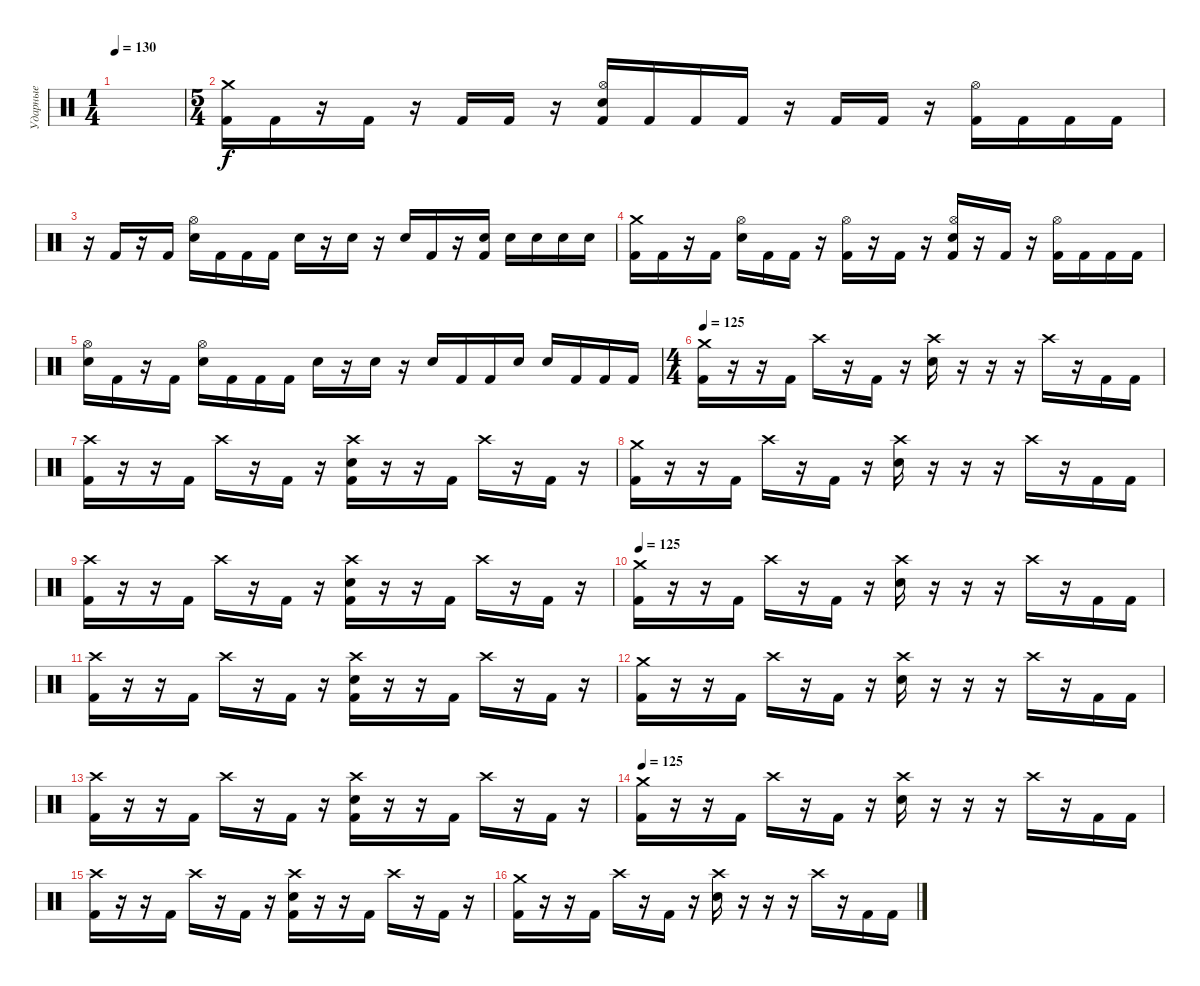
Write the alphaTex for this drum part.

\track ("Ударные" "Ударные") {instrument percussion}
\staff {score}
\articulation defaults
\ts (1 4)
\tempo 130
\clef neutral
\ks c
|
\ts (5 4)
("Crash medium (hit)" "Kick (hit) 2").16 "Kick (hit) 2".16 r.16 "Kick (hit) 2".16 r.16 "Kick (hit) 2".16 "Kick (hit) 2".16 r.16 ("Hi-Hat (open)" "Electric Snare (hit)" "Kick (hit) 2").16 "Kick (hit) 2".16 "Kick (hit) 2".16 "Kick (hit) 2".16 r.16 "Kick (hit) 2".16 "Kick (hit) 2".16 r.16 ("Hi-Hat (open)" "Kick (hit) 2").16 "Kick (hit) 2".16 "Kick (hit) 2".16 "Kick (hit) 2".16 |
r.16 "Kick (hit) 2".16 r.16 "Kick (hit) 2".16 ("Hi-Hat (open)" "Electric Snare (hit)").16 "Kick (hit) 2".16 "Kick (hit) 2".16 "Kick (hit) 2".16 "Electric Snare (hit)".16 r.16 "Electric Snare (hit)".16 r.16 "Electric Snare (hit)".16 "Kick (hit) 2".16 r.16 ("Electric Snare (hit)" "Kick (hit) 2").16 "Electric Snare (hit)".16 "Electric Snare (hit)".16 "Electric Snare (hit)".16 "Electric Snare (hit)".16 |
("Crash medium (hit)" "Kick (hit) 2").16 "Kick (hit) 2".16 r.16 "Kick (hit) 2".16 ("Hi-Hat (open)" "Electric Snare (hit)").16 "Kick (hit) 2".16 "Kick (hit) 2".16 r.16 ("Hi-Hat (open)" "Kick (hit) 2").16 r.16 "Kick (hit) 2".16 r.16 ("Hi-Hat (open)" "Electric Snare (hit)" "Kick (hit) 2").16 r.16 "Kick (hit) 2".16 r.16 ("Hi-Hat (open)" "Kick (hit) 2").16 "Kick (hit) 2".16 "Kick (hit) 2".16 "Kick (hit) 2".16 |
("Hi-Hat (open)" "Electric Snare (hit)").16 "Kick (hit) 2".16 r.16 "Kick (hit) 2".16 ("Hi-Hat (open)" "Electric Snare (hit)").16 "Kick (hit) 2".16 "Kick (hit) 2".16 "Kick (hit) 2".16 "Electric Snare (hit)".16 r.16 "Electric Snare (hit)".16 r.16 "Electric Snare (hit)".16 "Kick (hit) 2".16 "Kick (hit) 2".16 "Electric Snare (hit)".16 "Electric Snare (hit)".16 "Kick (hit) 2".16 "Kick (hit) 2".16 "Kick (hit) 2".16 |
\ts (4 4)
\tempo 125
("Crash medium (hit)" "Kick (hit) 2").16 r.16 r.16 "Kick (hit) 2".16 "Crash high (hit)".16 r.16 "Kick (hit) 2".16 r.16 ("Crash high (hit)" "Electric Snare (hit)").16 r.16 r.16 r.16 "Crash high (hit)".16 r.16 "Kick (hit) 2".16 "Kick (hit) 2".16 |
("Crash high (hit)" "Kick (hit) 2").16 r.16 r.16 "Kick (hit) 2".16 "Crash high (hit)".16 r.16 "Kick (hit) 2".16 r.16 ("Crash high (hit)" "Electric Snare (hit)" "Kick (hit) 2").16 r.16 r.16 "Kick (hit) 2".16 "Crash high (hit)".16 r.16 "Kick (hit) 2".16 r.16 |
("Crash medium (hit)" "Kick (hit) 2").16 r.16 r.16 "Kick (hit) 2".16 "Crash high (hit)".16 r.16 "Kick (hit) 2".16 r.16 ("Crash high (hit)" "Electric Snare (hit)").16 r.16 r.16 r.16 "Crash high (hit)".16 r.16 "Kick (hit) 2".16 "Kick (hit) 2".16 |
("Crash high (hit)" "Kick (hit) 2").16 r.16 r.16 "Kick (hit) 2".16 "Crash high (hit)".16 r.16 "Kick (hit) 2".16 r.16 ("Crash high (hit)" "Electric Snare (hit)" "Kick (hit) 2").16 r.16 r.16 "Kick (hit) 2".16 "Crash high (hit)".16 r.16 "Kick (hit) 2".16 r.16 |
\tempo 125
("Crash medium (hit)" "Kick (hit) 2").16 r.16 r.16 "Kick (hit) 2".16 "Crash high (hit)".16 r.16 "Kick (hit) 2".16 r.16 ("Crash high (hit)" "Electric Snare (hit)").16 r.16 r.16 r.16 "Crash high (hit)".16 r.16 "Kick (hit) 2".16 "Kick (hit) 2".16 |
("Crash high (hit)" "Kick (hit) 2").16 r.16 r.16 "Kick (hit) 2".16 "Crash high (hit)".16 r.16 "Kick (hit) 2".16 r.16 ("Crash high (hit)" "Electric Snare (hit)" "Kick (hit) 2").16 r.16 r.16 "Kick (hit) 2".16 "Crash high (hit)".16 r.16 "Kick (hit) 2".16 r.16 |
("Crash medium (hit)" "Kick (hit) 2").16 r.16 r.16 "Kick (hit) 2".16 "Crash high (hit)".16 r.16 "Kick (hit) 2".16 r.16 ("Crash high (hit)" "Electric Snare (hit)").16 r.16 r.16 r.16 "Crash high (hit)".16 r.16 "Kick (hit) 2".16 "Kick (hit) 2".16 |
("Crash high (hit)" "Kick (hit) 2").16 r.16 r.16 "Kick (hit) 2".16 "Crash high (hit)".16 r.16 "Kick (hit) 2".16 r.16 ("Crash high (hit)" "Electric Snare (hit)" "Kick (hit) 2").16 r.16 r.16 "Kick (hit) 2".16 "Crash high (hit)".16 r.16 "Kick (hit) 2".16 r.16 |
\tempo 125
("Crash medium (hit)" "Kick (hit) 2").16 r.16 r.16 "Kick (hit) 2".16 "Crash high (hit)".16 r.16 "Kick (hit) 2".16 r.16 ("Crash high (hit)" "Electric Snare (hit)").16 r.16 r.16 r.16 "Crash high (hit)".16 r.16 "Kick (hit) 2".16 "Kick (hit) 2".16 |
("Crash high (hit)" "Kick (hit) 2").16 r.16 r.16 "Kick (hit) 2".16 "Crash high (hit)".16 r.16 "Kick (hit) 2".16 r.16 ("Crash high (hit)" "Electric Snare (hit)" "Kick (hit) 2").16 r.16 r.16 "Kick (hit) 2".16 "Crash high (hit)".16 r.16 "Kick (hit) 2".16 r.16 |
("Crash medium (hit)" "Kick (hit) 2").16 r.16 r.16 "Kick (hit) 2".16 "Crash high (hit)".16 r.16 "Kick (hit) 2".16 r.16 ("Crash high (hit)" "Electric Snare (hit)").16 r.16 r.16 r.16 "Crash high (hit)".16 r.16 "Kick (hit) 2".16 "Kick (hit) 2".16
